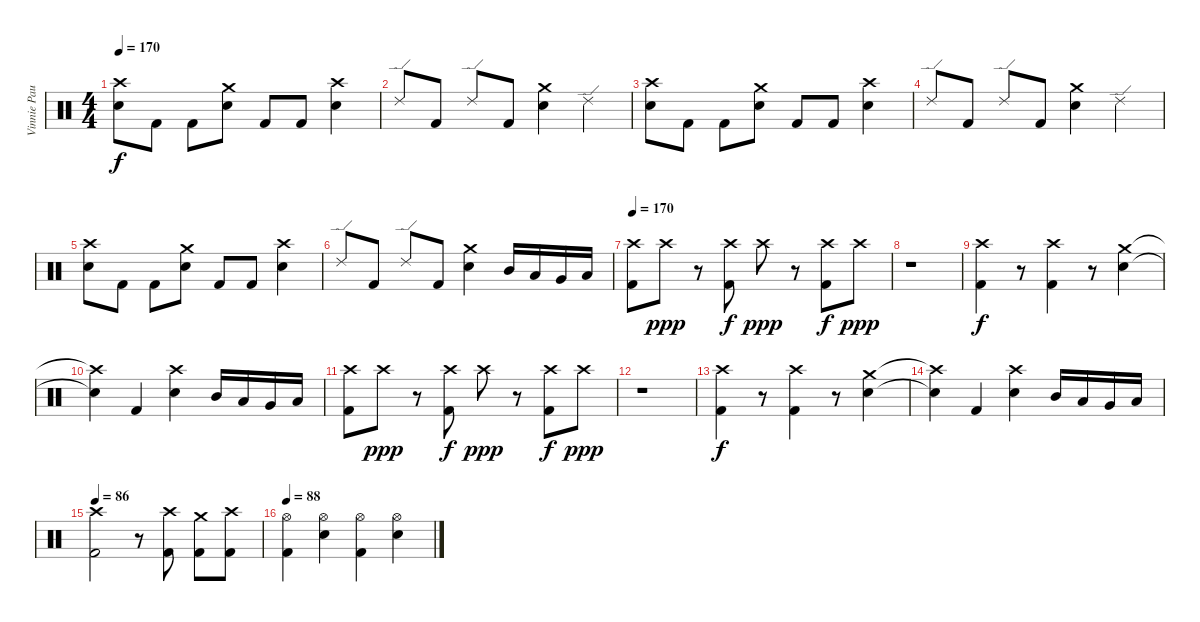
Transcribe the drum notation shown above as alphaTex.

\track ("Vinnie Paul (Drums)" "Vinnie Pau") {instrument percussion}
\staff {score}
\articulation defaults
\ts (4 4)
\tempo 170
\clef neutral
\ks c
("Crash high (hit)" "Snare (hit) 2").8{dy f} "Kick (hit) 2".8 "Kick (hit) 2".8 ("Crash medium (hit)" "Snare (hit) 2").8 "Kick (hit) 2".8 "Kick (hit) 2".8 ("Crash high (hit)" "Snare (hit) 2").4 |
"Ride (edge) 2".8 "Kick (hit) 2".8 "Ride (edge) 2".8 "Kick (hit) 2".8 ("Crash medium (hit)" "Snare (hit) 2").4 "Ride (edge) 2".4 |
("Crash high (hit)" "Snare (hit) 2").8 "Kick (hit) 2".8 "Kick (hit) 2".8 ("Crash medium (hit)" "Snare (hit) 2").8 "Kick (hit) 2".8 "Kick (hit) 2".8 ("Crash high (hit)" "Snare (hit) 2").4 |
"Ride (edge) 2".8 "Kick (hit) 2".8 "Ride (edge) 2".8 "Kick (hit) 2".8 ("Crash medium (hit)" "Snare (hit) 2").4 "Ride (edge) 2".4 |
("Crash high (hit)" "Snare (hit) 2").8 "Kick (hit) 2".8 "Kick (hit) 2".8 ("Crash medium (hit)" "Snare (hit) 2").8 "Kick (hit) 2".8 "Kick (hit) 2".8 ("Crash high (hit)" "Snare (hit) 2").4 |
"Ride (edge) 2".8 "Kick (hit) 2".8 "Ride (edge) 2".8 "Kick (hit) 2".8 ("Crash medium (hit)" "Snare (hit) 2").4 "Mid Tom (hit)".16 "Low Tom (hit)".16 "Very Low Tom (hit)".16 "Low Floor Tom (hit)".16 |
\tempo 170
("Crash high (hit)" "Kick (hit) 2").8 "Crash high (hit)".8{dy ppp} r.8 ("Crash high (hit)" "Kick (hit) 2").8{dy f} "Crash high (hit)".8{dy ppp} r.8 ("Crash high (hit)" "Kick (hit) 2").8{dy f} "Crash high (hit)".8{dy ppp} |
r.1 |
("Crash high (hit)" "Kick (hit) 2").4{dy f} r.8 ("Crash high (hit)" "Kick (hit) 2").4 r.8 ("Crash medium (hit)" "Snare (hit) 2").4 |
("Crash high (hit)"{t} "Snare (hit)"{t}).4 "Kick (hit) 2".4 ("Crash high (hit)" "Snare (hit) 2").4 "Mid Tom (hit)".16 "Low Tom (hit)".16 "Very Low Tom (hit)".16 "Low Floor Tom (hit)".16 |
("Crash high (hit)" "Kick (hit) 2").8 "Crash high (hit)".8{dy ppp} r.8 ("Crash high (hit)" "Kick (hit) 2").8{dy f} "Crash high (hit)".8{dy ppp} r.8 ("Crash high (hit)" "Kick (hit) 2").8{dy f} "Crash high (hit)".8{dy ppp} |
r.1 |
("Crash high (hit)" "Kick (hit) 2").4{dy f} r.8 ("Crash high (hit)" "Kick (hit) 2").4 r.8 ("Crash medium (hit)" "Snare (hit) 2").4 |
("Crash high (hit)"{t} "Snare (hit)"{t}).4 "Kick (hit) 2".4 ("Crash high (hit)" "Snare (hit) 2").4 "Mid Tom (hit)".16 "Low Tom (hit)".16 "Very Low Tom (hit)".16 "Low Floor Tom (hit)".16 |
\tempo 86
("Crash high (hit)" "Kick (hit) 2").2 r.8 ("Crash high (hit)" "Kick (hit) 2").8 ("Crash medium (hit)" "Kick (hit) 2").8 ("Crash high (hit)" "Kick (hit) 2").8 |
\tempo 88
("Hi-Hat (open)" "Kick (hit) 2").4 ("Hi-Hat (open)" "Snare (hit) 2").4 ("Hi-Hat (open)" "Kick (hit) 2").4 ("Hi-Hat (open)" "Snare (hit) 2").4
